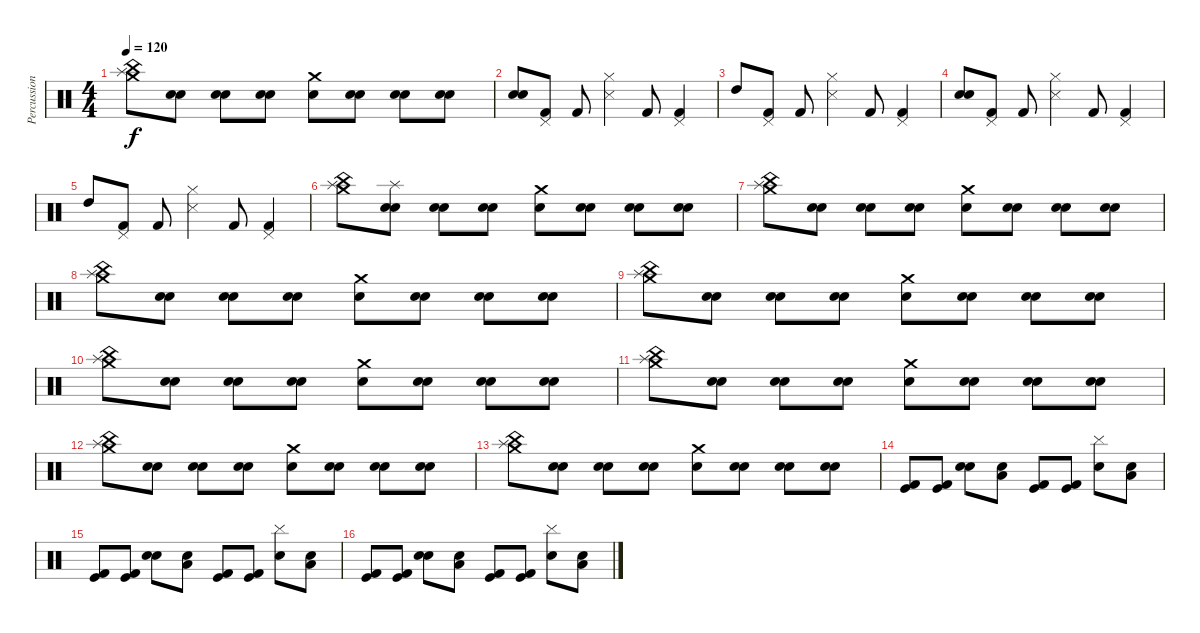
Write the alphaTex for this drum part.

\track ("Percussioni" "Percussion") {instrument percussion}
\staff {score}
\articulation defaults
\ts (4 4)
\tempo 120
\clef neutral
\ks c
("Crash medium (hit)" "China (hit)" "Splash (hit)").8{dy f} ("Electric Snare (hit)" "Snare (hit) 2").8 ("Electric Snare (hit)" "Snare (hit) 2").8 ("Electric Snare (hit)" "Snare (hit) 2").8 ("Crash medium (hit)" "Snare (hit) 2").8 ("Electric Snare (hit)" "Snare (hit) 2").8 ("Electric Snare (hit)" "Snare (hit) 2").8 ("Electric Snare (hit)" "Snare (hit) 2").8 |
("Electric Snare (hit)" "Snare (hit) 2").8 ("Kick (hit) 2" "Pedal Hi-Hat (hit)").8 "Kick (hit) 2".8 ("Snare (side stick) 3" "Hi-Hat (closed)").4 "Kick (hit) 2".8 ("Kick (hit) 2" "Pedal Hi-Hat (hit)").4 |
"High Tom (hit)".8 ("Kick (hit) 2" "Pedal Hi-Hat (hit)").8 "Kick (hit) 2".8 ("Snare (side stick) 3" "Hi-Hat (closed)").4 "Kick (hit) 2".8 ("Kick (hit) 2" "Pedal Hi-Hat (hit)").4 |
("Electric Snare (hit)" "Snare (hit) 2").8 ("Kick (hit) 2" "Pedal Hi-Hat (hit)").8 "Kick (hit) 2".8 ("Snare (side stick) 3" "Hi-Hat (closed)").4 "Kick (hit) 2".8 ("Kick (hit) 2" "Pedal Hi-Hat (hit)").4 |
"High Tom (hit)".8 ("Kick (hit) 2" "Pedal Hi-Hat (hit)").8 "Kick (hit) 2".8 ("Snare (side stick) 3" "Hi-Hat (closed)").4 "Kick (hit) 2".8 ("Kick (hit) 2" "Pedal Hi-Hat (hit)").4 |
("Crash medium (hit)" "China (hit)" "Splash (hit)").8 ("Electric Snare (hit)" "Snare (hit) 2" "Splash (hit)").8 ("Electric Snare (hit)" "Snare (hit) 2").8 ("Electric Snare (hit)" "Snare (hit) 2").8 ("Crash medium (hit)" "Snare (hit) 2").8 ("Electric Snare (hit)" "Snare (hit) 2").8 ("Electric Snare (hit)" "Snare (hit) 2").8 ("Electric Snare (hit)" "Snare (hit) 2").8 |
("Crash medium (hit)" "China (hit)" "Splash (hit)").8 ("Electric Snare (hit)" "Snare (hit) 2").8 ("Electric Snare (hit)" "Snare (hit) 2").8 ("Electric Snare (hit)" "Snare (hit) 2").8 ("Crash medium (hit)" "Snare (hit) 2").8 ("Electric Snare (hit)" "Snare (hit) 2").8 ("Electric Snare (hit)" "Snare (hit) 2").8 ("Electric Snare (hit)" "Snare (hit) 2").8 |
("Crash medium (hit)" "China (hit)" "Splash (hit)").8 ("Electric Snare (hit)" "Snare (hit) 2").8 ("Electric Snare (hit)" "Snare (hit) 2").8 ("Electric Snare (hit)" "Snare (hit) 2").8 ("Crash medium (hit)" "Snare (hit) 2").8 ("Electric Snare (hit)" "Snare (hit) 2").8 ("Electric Snare (hit)" "Snare (hit) 2").8 ("Electric Snare (hit)" "Snare (hit) 2").8 |
("Crash medium (hit)" "China (hit)" "Splash (hit)").8 ("Electric Snare (hit)" "Snare (hit) 2").8 ("Electric Snare (hit)" "Snare (hit) 2").8 ("Electric Snare (hit)" "Snare (hit) 2").8 ("Crash medium (hit)" "Snare (hit) 2").8 ("Electric Snare (hit)" "Snare (hit) 2").8 ("Electric Snare (hit)" "Snare (hit) 2").8 ("Electric Snare (hit)" "Snare (hit) 2").8 |
("Crash medium (hit)" "China (hit)" "Splash (hit)").8 ("Electric Snare (hit)" "Snare (hit) 2").8 ("Electric Snare (hit)" "Snare (hit) 2").8 ("Electric Snare (hit)" "Snare (hit) 2").8 ("Crash medium (hit)" "Snare (hit) 2").8 ("Electric Snare (hit)" "Snare (hit) 2").8 ("Electric Snare (hit)" "Snare (hit) 2").8 ("Electric Snare (hit)" "Snare (hit) 2").8 |
("Crash medium (hit)" "China (hit)" "Splash (hit)").8 ("Electric Snare (hit)" "Snare (hit) 2").8 ("Electric Snare (hit)" "Snare (hit) 2").8 ("Electric Snare (hit)" "Snare (hit) 2").8 ("Crash medium (hit)" "Snare (hit) 2").8 ("Electric Snare (hit)" "Snare (hit) 2").8 ("Electric Snare (hit)" "Snare (hit) 2").8 ("Electric Snare (hit)" "Snare (hit) 2").8 |
("Crash medium (hit)" "China (hit)" "Splash (hit)").8 ("Electric Snare (hit)" "Snare (hit) 2").8 ("Electric Snare (hit)" "Snare (hit) 2").8 ("Electric Snare (hit)" "Snare (hit) 2").8 ("Crash medium (hit)" "Snare (hit) 2").8 ("Electric Snare (hit)" "Snare (hit) 2").8 ("Electric Snare (hit)" "Snare (hit) 2").8 ("Electric Snare (hit)" "Snare (hit) 2").8 |
("Crash medium (hit)" "China (hit)" "Splash (hit)").8 ("Electric Snare (hit)" "Snare (hit) 2").8 ("Electric Snare (hit)" "Snare (hit) 2").8 ("Electric Snare (hit)" "Snare (hit) 2").8 ("Crash medium (hit)" "Snare (hit) 2").8 ("Electric Snare (hit)" "Snare (hit) 2").8 ("Electric Snare (hit)" "Snare (hit) 2").8 ("Electric Snare (hit)" "Snare (hit) 2").8 |
("Kick (hit) 2" "Kick (hit)").8 ("Kick (hit) 2" "Kick (hit)").8 ("Snare (hit) 2" "Electric Snare (hit)").8 ("Low Floor Tom (hit)" "Electric Snare (hit)").8 ("Kick (hit) 2" "Kick (hit)").8 ("Kick (hit) 2" "Kick (hit)").8 ("Snare (hit) 2" "Cymbal (hit)").8 ("Low Floor Tom (hit)" "Electric Snare (hit)").8 |
("Kick (hit) 2" "Kick (hit)").8 ("Kick (hit) 2" "Kick (hit)").8 ("Snare (hit) 2" "Electric Snare (hit)").8 ("Low Floor Tom (hit)" "Electric Snare (hit)").8 ("Kick (hit) 2" "Kick (hit)").8 ("Kick (hit) 2" "Kick (hit)").8 ("Snare (hit) 2" "Cymbal (hit)").8 ("Low Floor Tom (hit)" "Electric Snare (hit)").8 |
("Kick (hit) 2" "Kick (hit)").8 ("Kick (hit) 2" "Kick (hit)").8 ("Snare (hit) 2" "Electric Snare (hit)").8 ("Low Floor Tom (hit)" "Electric Snare (hit)").8 ("Kick (hit) 2" "Kick (hit)").8 ("Kick (hit) 2" "Kick (hit)").8 ("Snare (hit) 2" "Cymbal (hit)").8 ("Low Floor Tom (hit)" "Electric Snare (hit)").8
